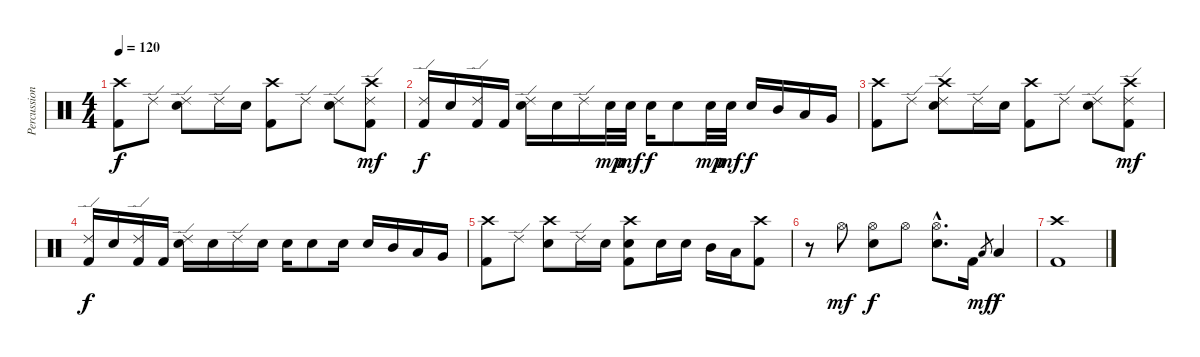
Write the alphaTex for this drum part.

\track ("Percussion" "Percussion") {instrument percussion}
\staff {score}
\articulation defaults
\ts (4 4)
\tempo 120
\clef neutral
\ks c
("Crash high (hit)" "Kick (hit) 2").8{dy f} "Ride (edge) 2".8 ("Ride (edge) 2" "Electric Snare (hit)").8 "Ride (edge) 2".16 "Electric Snare (hit)".16 ("Crash high (hit)" "Kick (hit) 2").8 "Ride (edge) 2".8 ("Ride (edge) 2" "Electric Snare (hit)").8 ("Crash high (hit)" "Ride (edge) 2" "Kick (hit) 2").8{dy mf} |
("Ride (edge) 2" "Kick (hit) 2").16{dy f} "Electric Snare (hit)".16 ("Ride (edge) 2" "Kick (hit) 2").16 "Kick (hit) 2".16 ("Ride (edge) 2" "Electric Snare (hit)").16 "Electric Snare (hit)".16 "Ride (edge) 2".16 "Electric Snare (hit)".32{dy mp} "Electric Snare (hit)".32{dy mf} "Electric Snare (hit)".16{dy f} "Electric Snare (hit)".8 "Electric Snare (hit)".32{dy mp} "Electric Snare (hit)".32{dy mf} "Electric Snare (hit)".16{dy f} "Mid Tom (hit)".16 "Low Tom (hit)".16 "Very Low Tom (hit)".16 |
("Crash high (hit)" "Kick (hit) 2").8 "Ride (edge) 2".8 ("Crash high (hit)" "Ride (edge) 2" "Electric Snare (hit)").8 "Ride (edge) 2".16 "Electric Snare (hit)".16 ("Crash high (hit)" "Kick (hit) 2").8 "Ride (edge) 2".8 ("Ride (edge) 2" "Electric Snare (hit)").8 ("Crash high (hit)" "Ride (edge) 2" "Kick (hit) 2").8{dy mf} |
("Ride (edge) 2" "Kick (hit) 2").16{dy f} "Electric Snare (hit)".16 ("Ride (edge) 2" "Kick (hit) 2").16 "Kick (hit) 2".16 ("Ride (edge) 2" "Electric Snare (hit)").16 "Electric Snare (hit)".16 "Ride (edge) 2".16 "Electric Snare (hit)".16 "Electric Snare (hit)".16 "Electric Snare (hit)".8 "Electric Snare (hit)".16 "Electric Snare (hit)".16 "Mid Tom (hit)".16 "Low Tom (hit)".16 "Very Low Tom (hit)".16 |
("Crash high (hit)" "Kick (hit) 2").8 "Ride (edge) 2".8 ("Crash high (hit)" "Electric Snare (hit)").8 "Ride (edge) 2".16 "Electric Snare (hit)".16 ("Crash high (hit)" "Electric Snare (hit)" "Kick (hit) 2").8 "Electric Snare (hit)".16 "Electric Snare (hit)".16 "Mid Tom (hit)".16 "Low Tom (hit)".16 ("Crash high (hit)" "Kick (hit) 2").8 |
r.8 "Hi-Hat (open)".8{dy mf} ("Hi-Hat (open)" "Electric Snare (hit)").8{dy f} "Hi-Hat (open)".8 ("Hi-Hat (open)"{hac} "Electric Snare (hit)"{hac}).8{d} "Kick (hit) 2".16 "Low Tom (hit)".8{gr dy mf} "Low Tom (hit)".4{dy f} |
("Crash high (hit)" "Kick (hit) 2").1
